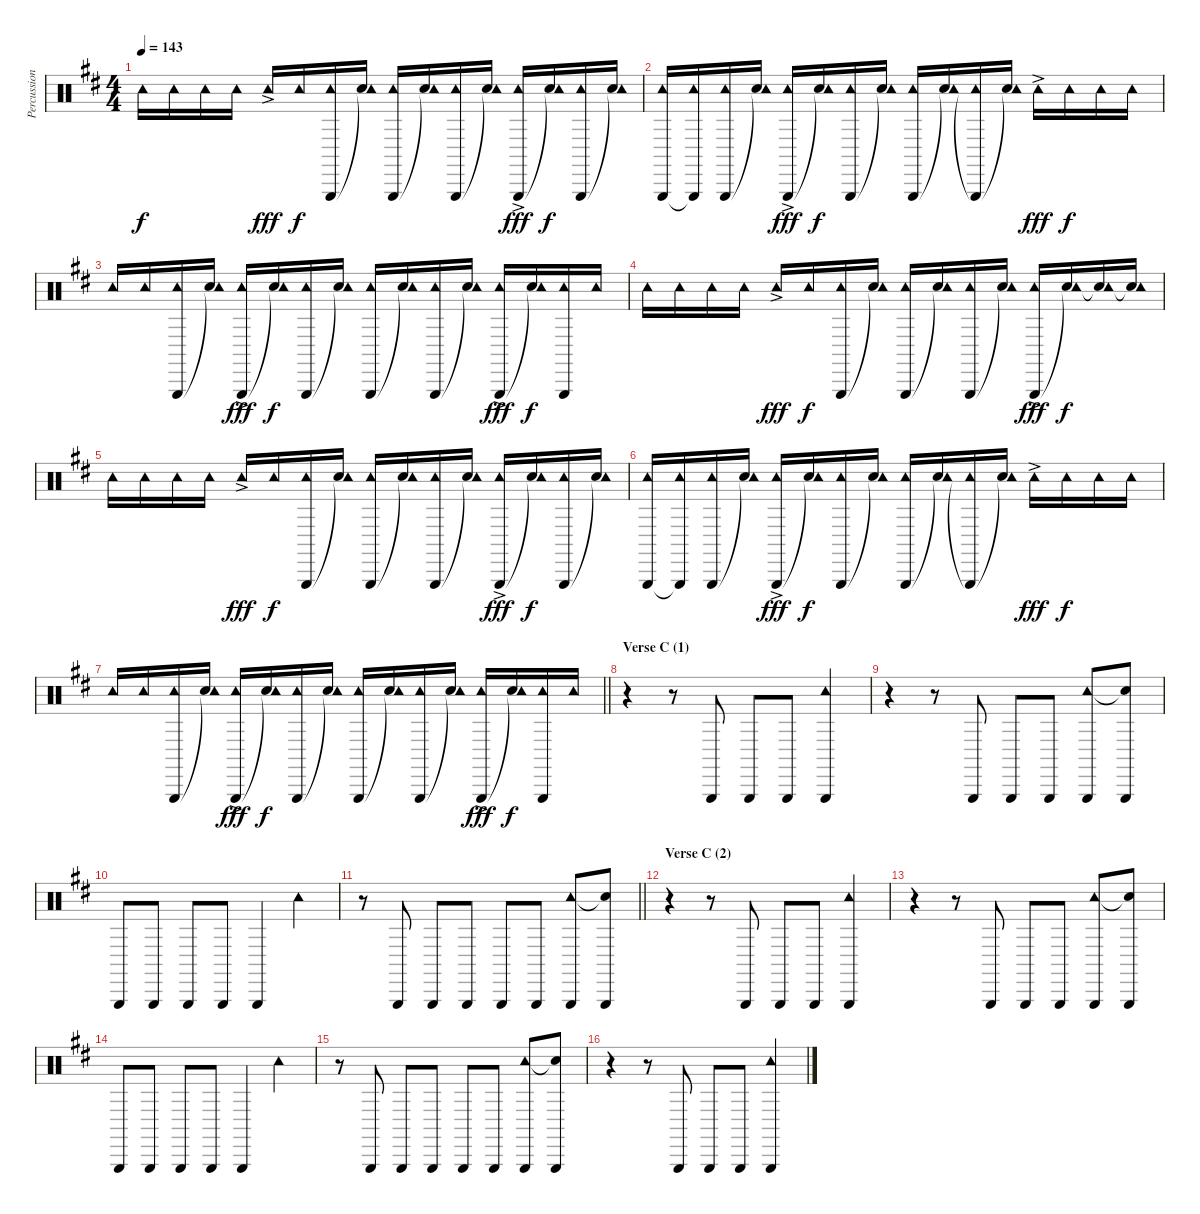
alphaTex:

\track ("Percussion" "Percussion") {instrument percussion}
\staff {score}
\articulation defaults
\ts (4 4)
\tempo 143
\clef neutral
\ks d "Tambourine (hit)".16{dy f} "Tambourine (hit)".16 "Tambourine (hit)".16 "Tambourine (hit)".16 "Tambourine (hit)"{ac}.16{dy fff} "Tambourine (hit)".16{dy f}
("Triangle (hit)" "Tambourine (hit)").16 ("Snare (hit)"{t} "Tambourine (hit)").16 ("Triangle (hit)" "Tambourine (hit)").16 ("Snare (hit)"{t} "Tambourine (hit)").16 ("Triangle (hit)" "Tambourine (hit)").16 ("Snare (hit)"{t} "Tambourine (hit)").16 ("Triangle (hit)" "Tambourine (hit)"{ac}).16{dy fff} ("Snare (hit)"{t} "Tambourine (hit)").16{dy f} ("Triangle (hit)" "Tambourine (hit)").16 ("Snare (hit)"{t} "Tambourine (hit)").16 |
("Triangle (hit)" "Tambourine (hit)").16 ("Triangle (hit)"{t} "Tambourine (hit)").16 ("Triangle (hit)" "Tambourine (hit)").16 ("Snare (hit)"{t} "Tambourine (hit)").16 ("Triangle (hit)" "Tambourine (hit)"{ac}).16{dy fff} ("Snare (hit)"{t} "Tambourine (hit)").16{dy f} ("Triangle (hit)" "Tambourine (hit)").16 ("Snare (hit)"{t} "Tambourine (hit)").16 ("Triangle (hit)" "Tambourine (hit)").16 ("Snare (hit)"{t} "Tambourine (hit)").16 ("Triangle (hit)"{t} "Tambourine (hit)").16 ("Snare (hit)"{t} "Tambourine (hit)").16 "Tambourine (hit)"{ac}.16{dy fff} "Tambourine (hit)".16{dy f} "Tambourine (hit)".16 "Tambourine (hit)".16 |
"Tambourine (hit)".16 "Tambourine (hit)".16 ("Triangle (hit)" "Tambourine (hit)").16 ("Snare (hit)"{t} "Tambourine (hit)").16 ("Triangle (hit)" "Tambourine (hit)"{ac}).16{dy fff} ("Snare (hit)"{t} "Tambourine (hit)").16{dy f} ("Triangle (hit)" "Tambourine (hit)").16 ("Snare (hit)"{t} "Tambourine (hit)").16 ("Triangle (hit)" "Tambourine (hit)").16 ("Snare (hit)"{t} "Tambourine (hit)").16 ("Triangle (hit)" "Tambourine (hit)").16 ("Snare (hit)"{t} "Tambourine (hit)").16 ("Triangle (hit)" "Tambourine (hit)"{ac}).16{dy fff} ("Snare (hit)"{t} "Tambourine (hit)").16{dy f} ("Triangle (hit)" "Tambourine (hit)").16 "Tambourine (hit)".16 |
"Tambourine (hit)".16 "Tambourine (hit)".16 "Tambourine (hit)".16 "Tambourine (hit)".16 "Tambourine (hit)"{ac}.16{dy fff} "Tambourine (hit)".16{dy f} ("Triangle (hit)" "Tambourine (hit)").16 ("Snare (hit)"{t} "Tambourine (hit)").16 ("Triangle (hit)" "Tambourine (hit)").16 ("Snare (hit)"{t} "Tambourine (hit)").16 ("Triangle (hit)" "Tambourine (hit)").16 ("Snare (hit)"{t} "Tambourine (hit)").16 ("Triangle (hit)" "Tambourine (hit)"{ac}).16{dy fff} ("Snare (hit)"{t} "Tambourine (hit)").16{dy f} ("Snare (hit)"{t} "Tambourine (hit)").16 ("Snare (hit)"{t} "Tambourine (hit)").16 |
"Tambourine (hit)".16 "Tambourine (hit)".16 "Tambourine (hit)".16 "Tambourine (hit)".16 "Tambourine (hit)"{ac}.16{dy fff} "Tambourine (hit)".16{dy f} ("Triangle (hit)" "Tambourine (hit)").16 ("Snare (hit)"{t} "Tambourine (hit)").16 ("Triangle (hit)" "Tambourine (hit)").16 ("Snare (hit)"{t} "Tambourine (hit)").16 ("Triangle (hit)" "Tambourine (hit)").16 ("Snare (hit)"{t} "Tambourine (hit)").16 ("Triangle (hit)" "Tambourine (hit)"{ac}).16{dy fff} ("Snare (hit)"{t} "Tambourine (hit)").16{dy f} ("Triangle (hit)" "Tambourine (hit)").16 ("Snare (hit)"{t} "Tambourine (hit)").16 |
("Triangle (hit)" "Tambourine (hit)").16 ("Triangle (hit)"{t} "Tambourine (hit)").16 ("Triangle (hit)" "Tambourine (hit)").16 ("Snare (hit)"{t} "Tambourine (hit)").16 ("Triangle (hit)" "Tambourine (hit)"{ac}).16{dy fff} ("Snare (hit)"{t} "Tambourine (hit)").16{dy f} ("Triangle (hit)" "Tambourine (hit)").16 ("Snare (hit)"{t} "Tambourine (hit)").16 ("Triangle (hit)" "Tambourine (hit)").16 ("Snare (hit)"{t} "Tambourine (hit)").16 ("Triangle (hit)"{t} "Tambourine (hit)").16 ("Snare (hit)"{t} "Tambourine (hit)").16 "Tambourine (hit)"{ac}.16{dy fff} "Tambourine (hit)".16{dy f} "Tambourine (hit)".16 "Tambourine (hit)".16 |
\barLineRight lightlight "Tambourine (hit)".16 "Tambourine (hit)".16
("Triangle (hit)" "Tambourine (hit)").16 ("Snare (hit)"{t} "Tambourine (hit)").16 ("Triangle (hit)" "Tambourine (hit)"{ac}).16{dy fff} ("Snare (hit)"{t} "Tambourine (hit)").16{dy f} ("Triangle (hit)" "Tambourine (hit)").16 ("Snare (hit)"{t} "Tambourine (hit)").16 ("Triangle (hit)" "Tambourine (hit)").16 ("Snare (hit)"{t} "Tambourine (hit)").16 ("Triangle (hit)" "Tambourine (hit)").16 ("Snare (hit)"{t} "Tambourine (hit)").16 ("Triangle (hit)" "Tambourine (hit)"{ac}).16{dy fff} ("Snare (hit)"{t} "Tambourine (hit)").16{dy f} ("Triangle (hit)" "Tambourine (hit)").16 "Tambourine (hit)".16 |
\section ("" "Verse C (1)")
r.4 r.8 "Triangle (hit)".8 "Triangle (hit)".8 "Triangle (hit)".8 ("Triangle (hit)" "Tambourine (hit)").4 |
r.4 r.8 "Triangle (hit)".8 "Triangle (hit)".8 "Triangle (hit)".8 ("Triangle (hit)" "Tambourine (hit)").8 ("Triangle (hit)" "Snare (hit)"{t}).8 |
"Triangle (hit)".8 "Triangle (hit)".8 "Triangle (hit)".8 "Triangle (hit)".8 "Triangle (hit)".4 "Tambourine (hit)".4 |
\barLineRight lightlight
r.8 "Triangle (hit)".8 "Triangle (hit)".8 "Triangle (hit)".8 "Triangle (hit)".8 "Triangle (hit)".8 ("Triangle (hit)" "Tambourine (hit)").8 ("Triangle (hit)" "Snare (hit)"{t}).8 |
\section ("" "Verse C (2)")
r.4 r.8 "Triangle (hit)".8 "Triangle (hit)".8 "Triangle (hit)".8 ("Triangle (hit)" "Tambourine (hit)").4 |
r.4 r.8 "Triangle (hit)".8 "Triangle (hit)".8 "Triangle (hit)".8 ("Triangle (hit)" "Tambourine (hit)").8 ("Triangle (hit)" "Snare (hit)"{t}).8 |
"Triangle (hit)".8 "Triangle (hit)".8 "Triangle (hit)".8 "Triangle (hit)".8 "Triangle (hit)".4 "Tambourine (hit)".4 |
r.8 "Triangle (hit)".8 "Triangle (hit)".8 "Triangle (hit)".8 "Triangle (hit)".8 "Triangle (hit)".8 ("Triangle (hit)" "Tambourine (hit)").8 ("Triangle (hit)" "Snare (hit)"{t}).8 |
r.4 r.8 "Triangle (hit)".8 "Triangle (hit)".8 "Triangle (hit)".8 ("Triangle (hit)" "Tambourine (hit)").4
